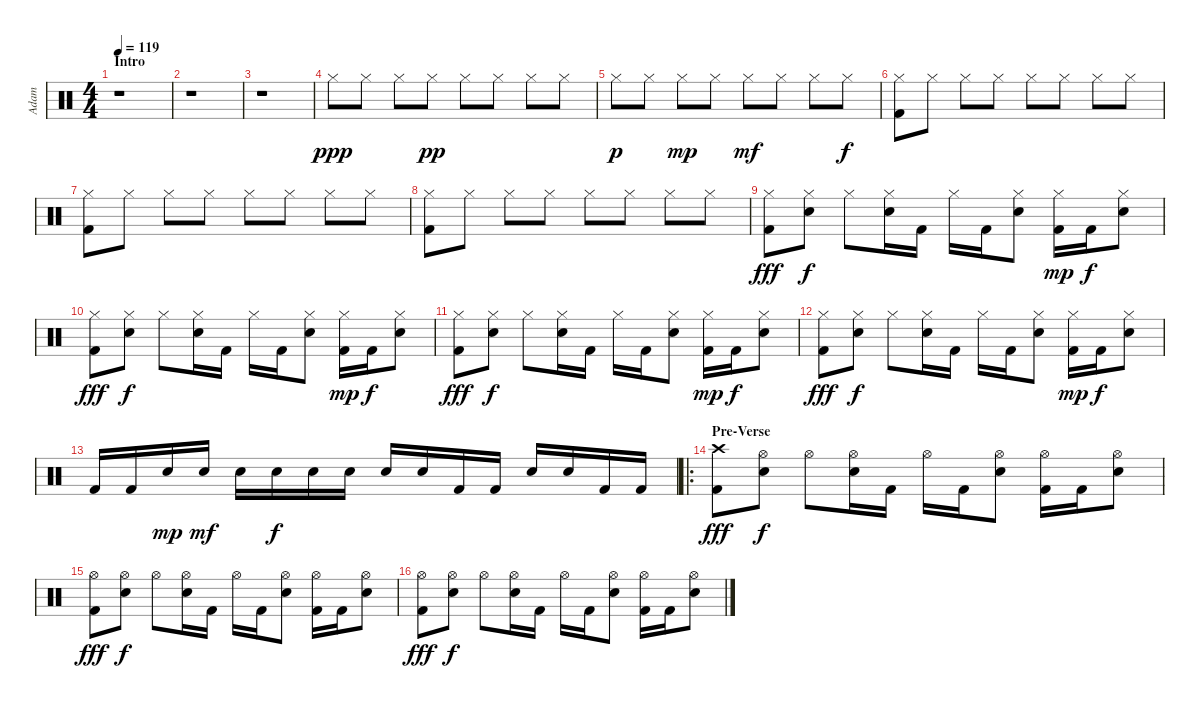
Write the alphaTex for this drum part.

\track ("Adam" "Adam") {instrument percussion}
\staff {score}
\articulation defaults
\ts (4 4)
\section ("" "Intro")
\tempo 119
\clef neutral
\ks c
r.1{dy ppp} |
r.1 |
r.1 |
"Hi-Hat (closed)".8 "Hi-Hat (closed)".8 "Hi-Hat (closed)".8 "Hi-Hat (closed)".8{dy pp} "Hi-Hat (closed)".8 "Hi-Hat (closed)".8 "Hi-Hat (closed)".8 "Hi-Hat (closed)".8 |
"Hi-Hat (closed)".8{dy p} "Hi-Hat (closed)".8 "Hi-Hat (closed)".8{dy mp} "Hi-Hat (closed)".8 "Hi-Hat (closed)".8{dy mf} "Hi-Hat (closed)".8 "Hi-Hat (closed)".8 "Hi-Hat (closed)".8{dy f} |
("Hi-Hat (closed)" "Kick (hit) 2").8 "Hi-Hat (closed)".8 "Hi-Hat (closed)".8 "Hi-Hat (closed)".8 "Hi-Hat (closed)".8 "Hi-Hat (closed)".8 "Hi-Hat (closed)".8 "Hi-Hat (closed)".8 |
("Hi-Hat (closed)" "Kick (hit) 2").8 "Hi-Hat (closed)".8 "Hi-Hat (closed)".8 "Hi-Hat (closed)".8 "Hi-Hat (closed)".8 "Hi-Hat (closed)".8 "Hi-Hat (closed)".8 "Hi-Hat (closed)".8 |
("Hi-Hat (closed)" "Kick (hit) 2").8 "Hi-Hat (closed)".8 "Hi-Hat (closed)".8 "Hi-Hat (closed)".8 "Hi-Hat (closed)".8 "Hi-Hat (closed)".8 "Hi-Hat (closed)".8 "Hi-Hat (closed)".8 |
("Hi-Hat (closed)" "Kick (hit) 2").8{dy fff} ("Hi-Hat (closed)" "Electric Snare (hit)").8{dy f} "Hi-Hat (closed)".8 ("Hi-Hat (closed)" "Electric Snare (hit)").16 "Kick (hit) 2".16 "Hi-Hat (closed)".16 "Kick (hit) 2".16 ("Hi-Hat (closed)" "Electric Snare (hit)").8 ("Hi-Hat (closed)" "Kick (hit) 2").16{dy mp} "Kick (hit) 2".16{dy f} ("Hi-Hat (closed)" "Electric Snare (hit)").8 |
("Hi-Hat (closed)" "Kick (hit) 2").8{dy fff} ("Hi-Hat (closed)" "Electric Snare (hit)").8{dy f} "Hi-Hat (closed)".8 ("Hi-Hat (closed)" "Electric Snare (hit)").16 "Kick (hit) 2".16 "Hi-Hat (closed)".16 "Kick (hit) 2".16 ("Hi-Hat (closed)" "Electric Snare (hit)").8 ("Hi-Hat (closed)" "Kick (hit) 2").16{dy mp} "Kick (hit) 2".16{dy f} ("Hi-Hat (closed)" "Electric Snare (hit)").8 |
("Hi-Hat (closed)" "Kick (hit) 2").8{dy fff} ("Hi-Hat (closed)" "Electric Snare (hit)").8{dy f} "Hi-Hat (closed)".8 ("Hi-Hat (closed)" "Electric Snare (hit)").16 "Kick (hit) 2".16 "Hi-Hat (closed)".16 "Kick (hit) 2".16 ("Hi-Hat (closed)" "Electric Snare (hit)").8 ("Hi-Hat (closed)" "Kick (hit) 2").16{dy mp} "Kick (hit) 2".16{dy f} ("Hi-Hat (closed)" "Electric Snare (hit)").8 |
("Hi-Hat (closed)" "Kick (hit) 2").8{dy fff} ("Hi-Hat (closed)" "Electric Snare (hit)").8{dy f} "Hi-Hat (closed)".8 ("Hi-Hat (closed)" "Electric Snare (hit)").16 "Kick (hit) 2".16 "Hi-Hat (closed)".16 "Kick (hit) 2".16 ("Hi-Hat (closed)" "Electric Snare (hit)").8 ("Hi-Hat (closed)" "Kick (hit) 2").16{dy mp} "Kick (hit) 2".16{dy f} ("Hi-Hat (closed)" "Electric Snare (hit)").8 |
"Kick (hit) 2".16 "Kick (hit) 2".16 "Electric Snare (hit)".16{dy mp} "Electric Snare (hit)".16{dy mf} "Electric Snare (hit)".16 "Electric Snare (hit)".16{dy f} "Electric Snare (hit)".16 "Electric Snare (hit)".16 "Electric Snare (hit)".16 "Electric Snare (hit)".16 "Kick (hit) 2".16 "Kick (hit) 2".16 "Electric Snare (hit)".16 "Electric Snare (hit)".16 "Kick (hit) 2".16 "Kick (hit) 2".16 |
\ro
\section ("" "Pre-Verse")
("Crash high (hit)" "Kick (hit) 2").8{dy fff} ("Hi-Hat (open)" "Electric Snare (hit)").8{dy f} "Hi-Hat (open)".8 ("Hi-Hat (open)" "Electric Snare (hit)").16 "Kick (hit) 2".16 "Hi-Hat (open)".16 "Kick (hit) 2".16 ("Hi-Hat (open)" "Electric Snare (hit)").8 ("Hi-Hat (open)" "Kick (hit) 2").16 "Kick (hit) 2".16 ("Hi-Hat (open)" "Electric Snare (hit)").8 |
("Hi-Hat (open)" "Kick (hit) 2").8{dy fff} ("Hi-Hat (open)" "Electric Snare (hit)").8{dy f} "Hi-Hat (open)".8 ("Hi-Hat (open)" "Electric Snare (hit)").16 "Kick (hit) 2".16 "Hi-Hat (open)".16 "Kick (hit) 2".16 ("Hi-Hat (open)" "Electric Snare (hit)").8 ("Hi-Hat (open)" "Kick (hit) 2").16 "Kick (hit) 2".16 ("Hi-Hat (open)" "Electric Snare (hit)").8 |
("Hi-Hat (open)" "Kick (hit) 2").8{dy fff} ("Hi-Hat (open)" "Electric Snare (hit)").8{dy f} "Hi-Hat (open)".8 ("Hi-Hat (open)" "Electric Snare (hit)").16 "Kick (hit) 2".16 "Hi-Hat (open)".16 "Kick (hit) 2".16 ("Hi-Hat (open)" "Electric Snare (hit)").8 ("Hi-Hat (open)" "Kick (hit) 2").16 "Kick (hit) 2".16 ("Hi-Hat (open)" "Electric Snare (hit)").8
